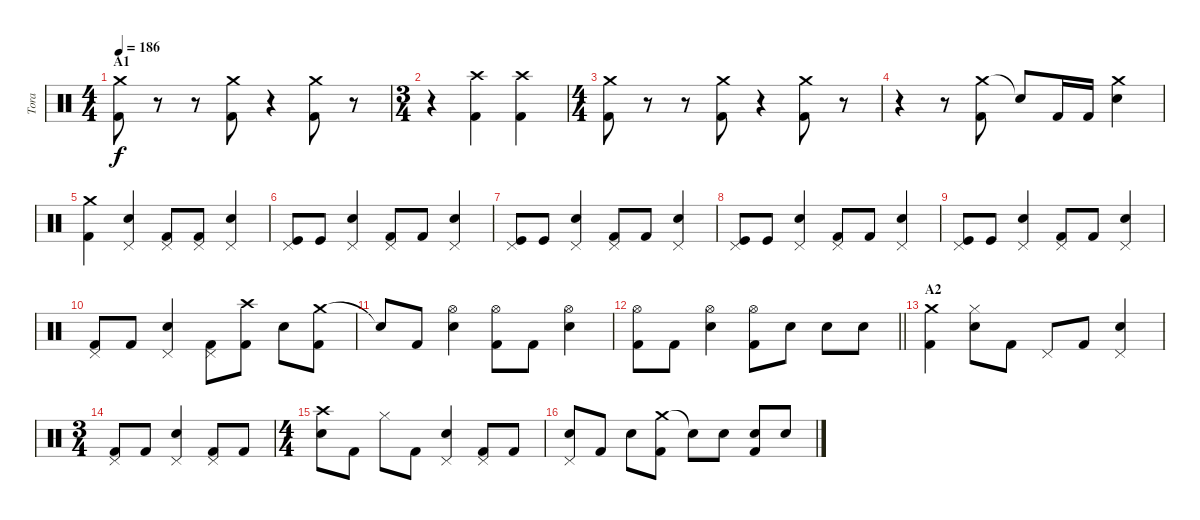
\track ("Tora" "Tora") {instrument percussion}
\staff {score}
\articulation defaults
\ts (4 4)
\section ("" "A1")
\tempo 186
\clef neutral
\ks c
("Crash medium (hit)" "Kick (hit) 2").8{dy f} r.8 r.8 ("Crash medium (hit)" "Kick (hit) 2").8 r.4 ("Crash medium (hit)" "Kick (hit) 2").8 r.8 |
\ts (3 4)
r.4 ("Crash high (hit)" "Kick (hit) 2").4 ("Crash high (hit)" "Kick (hit) 2").4 |
\ts (4 4)
("Crash medium (hit)" "Kick (hit) 2").8 r.8 r.8 ("Crash medium (hit)" "Kick (hit) 2").8 r.4 ("Crash medium (hit)" "Kick (hit) 2").8 r.8 |
r.4 r.8 ("Crash medium (hit)" "Kick (hit) 2").8 "Snare (hit)"{t}.8 "Kick (hit) 2".16 "Kick (hit) 2".16 ("Crash medium (hit)" "Electric Snare (hit)").4 |
("Crash medium (hit)" "Kick (hit) 2").4 ("Pedal Hi-Hat (hit)" "Electric Snare (hit)").4 ("Pedal Hi-Hat (hit)" "Kick (hit) 2").8 ("Pedal Hi-Hat (hit)" "Kick (hit) 2").8 ("Pedal Hi-Hat (hit)" "Electric Snare (hit)").4 |
("Pedal Hi-Hat (hit)" "Kick (hit)").8 "Kick (hit)".8 ("Pedal Hi-Hat (hit)" "Electric Snare (hit)").4 ("Pedal Hi-Hat (hit)" "Kick (hit) 2").8 "Kick (hit) 2".8 ("Pedal Hi-Hat (hit)" "Electric Snare (hit)").4 |
("Pedal Hi-Hat (hit)" "Kick (hit)").8 "Kick (hit)".8 ("Pedal Hi-Hat (hit)" "Electric Snare (hit)").4 ("Pedal Hi-Hat (hit)" "Kick (hit) 2").8 "Kick (hit) 2".8 ("Pedal Hi-Hat (hit)" "Electric Snare (hit)").4 |
("Pedal Hi-Hat (hit)" "Kick (hit)").8 "Kick (hit)".8 ("Pedal Hi-Hat (hit)" "Electric Snare (hit)").4 ("Pedal Hi-Hat (hit)" "Kick (hit) 2").8 "Kick (hit) 2".8 ("Pedal Hi-Hat (hit)" "Electric Snare (hit)").4 |
("Pedal Hi-Hat (hit)" "Kick (hit)").8 "Kick (hit)".8 ("Pedal Hi-Hat (hit)" "Electric Snare (hit)").4 ("Pedal Hi-Hat (hit)" "Kick (hit) 2").8 "Kick (hit) 2".8 ("Pedal Hi-Hat (hit)" "Electric Snare (hit)").4 |
("Pedal Hi-Hat (hit)" "Kick (hit) 2").8 "Kick (hit) 2".8 ("Pedal Hi-Hat (hit)" "Electric Snare (hit)").4 ("Pedal Hi-Hat (hit)" "Kick (hit) 2").8 ("Crash high (hit)" "Kick (hit) 2").8 "Electric Snare (hit)".8 ("Crash medium (hit)" "Kick (hit) 2").8 |
"Snare (hit)"{t}.8 "Kick (hit) 2".8 ("Hi-Hat (open)" "Electric Snare (hit)").4 ("Hi-Hat (open)" "Kick (hit) 2").8 "Kick (hit) 2".8 ("Hi-Hat (open)" "Electric Snare (hit)").4 |
\barLineRight lightlight
("Hi-Hat (open)" "Kick (hit) 2").8 "Kick (hit) 2".8 ("Hi-Hat (open)" "Electric Snare (hit)").4 ("Hi-Hat (open)" "Kick (hit) 2").8 "Electric Snare (hit)".8 "Electric Snare (hit)".8 "Electric Snare (hit)".8 |
\section ("" "A2")
("Crash medium (hit)" "Kick (hit) 2").4 ("Hi-Hat (closed)" "Electric Snare (hit)").8 "Kick (hit) 2".8 "Pedal Hi-Hat (hit)".8 "Kick (hit) 2".8 ("Pedal Hi-Hat (hit)" "Electric Snare (hit)").4 |
\ts (3 4)
("Pedal Hi-Hat (hit)" "Kick (hit) 2").8 "Kick (hit) 2".8 ("Pedal Hi-Hat (hit)" "Electric Snare (hit)").4 ("Pedal Hi-Hat (hit)" "Kick (hit) 2").8 "Kick (hit) 2".8 |
\ts (4 4)
("Crash high (hit)" "Electric Snare (hit)").8 "Kick (hit) 2".8 "Hi-Hat (closed)".8 "Kick (hit) 2".8 ("Pedal Hi-Hat (hit)" "Electric Snare (hit)").4 ("Pedal Hi-Hat (hit)" "Kick (hit) 2").8 "Kick (hit) 2".8 |
("Pedal Hi-Hat (hit)" "Electric Snare (hit)").8 "Kick (hit) 2".8 "Electric Snare (hit)".8 ("Crash medium (hit)" "Kick (hit) 2").8 "Snare (hit)"{t}.8 "Electric Snare (hit)".8 ("Electric Snare (hit)" "Kick (hit) 2").8 "Electric Snare (hit)".8
